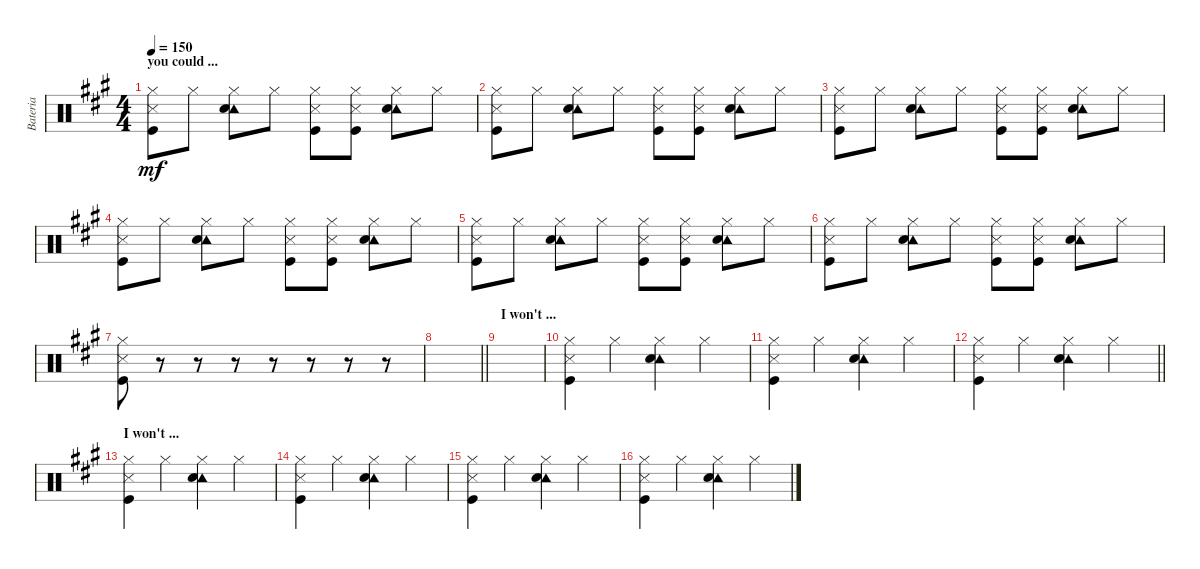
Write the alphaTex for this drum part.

\track ("Bateria" "Bateria") {instrument percussion}
\staff {score}
\articulation defaults
\ts (4 4)
\section ("" "you could ...")
\tempo 150
\clef neutral
\ks a
("Hi-Hat (closed)" "Metronome (hit)" "Kick (hit)").8{dy mf} "Hi-Hat (closed)".8 ("Tambourine (hit)" "Hi-Hat (closed)" "Electric Snare (hit)").8 "Hi-Hat (closed)".8 ("Hi-Hat (closed)" "Metronome (hit)" "Kick (hit)").8 ("Hi-Hat (closed)" "Metronome (hit)" "Kick (hit)").8 ("Tambourine (hit)" "Hi-Hat (closed)" "Electric Snare (hit)").8 "Hi-Hat (closed)".8 |
("Hi-Hat (closed)" "Metronome (hit)" "Kick (hit)").8 "Hi-Hat (closed)".8 ("Tambourine (hit)" "Hi-Hat (closed)" "Electric Snare (hit)").8 "Hi-Hat (closed)".8 ("Hi-Hat (closed)" "Metronome (hit)" "Kick (hit)").8 ("Hi-Hat (closed)" "Metronome (hit)" "Kick (hit)").8 ("Tambourine (hit)" "Hi-Hat (closed)" "Electric Snare (hit)").8 "Hi-Hat (closed)".8 |
("Hi-Hat (closed)" "Metronome (hit)" "Kick (hit)").8 "Hi-Hat (closed)".8 ("Tambourine (hit)" "Hi-Hat (closed)" "Electric Snare (hit)").8 "Hi-Hat (closed)".8 ("Hi-Hat (closed)" "Metronome (hit)" "Kick (hit)").8 ("Hi-Hat (closed)" "Metronome (hit)" "Kick (hit)").8 ("Tambourine (hit)" "Hi-Hat (closed)" "Electric Snare (hit)").8 "Hi-Hat (closed)".8 |
("Hi-Hat (closed)" "Metronome (hit)" "Kick (hit)").8 "Hi-Hat (closed)".8 ("Tambourine (hit)" "Hi-Hat (closed)" "Electric Snare (hit)").8 "Hi-Hat (closed)".8 ("Hi-Hat (closed)" "Metronome (hit)" "Kick (hit)").8 ("Hi-Hat (closed)" "Metronome (hit)" "Kick (hit)").8 ("Tambourine (hit)" "Hi-Hat (closed)" "Electric Snare (hit)").8 "Hi-Hat (closed)".8 |
("Hi-Hat (closed)" "Metronome (hit)" "Kick (hit)").8 "Hi-Hat (closed)".8 ("Tambourine (hit)" "Hi-Hat (closed)" "Electric Snare (hit)").8 "Hi-Hat (closed)".8 ("Hi-Hat (closed)" "Metronome (hit)" "Kick (hit)").8 ("Hi-Hat (closed)" "Metronome (hit)" "Kick (hit)").8 ("Tambourine (hit)" "Hi-Hat (closed)" "Electric Snare (hit)").8 "Hi-Hat (closed)".8 |
("Hi-Hat (closed)" "Metronome (hit)" "Kick (hit)").8 "Hi-Hat (closed)".8 ("Tambourine (hit)" "Hi-Hat (closed)" "Electric Snare (hit)").8 "Hi-Hat (closed)".8 ("Hi-Hat (closed)" "Metronome (hit)" "Kick (hit)").8 ("Hi-Hat (closed)" "Metronome (hit)" "Kick (hit)").8 ("Tambourine (hit)" "Hi-Hat (closed)" "Electric Snare (hit)").8 "Hi-Hat (closed)".8 |
("Hi-Hat (closed)" "Metronome (hit)" "Kick (hit)").8 r.8 r.8 r.8 r.8 r.8 r.8 r.8 |
\barLineRight lightlight
|
\section ("" "I won't ...")
|
("Hi-Hat (closed)" "Metronome (hit)" "Kick (hit)").4 "Hi-Hat (closed)".4 ("Tambourine (hit)" "Hi-Hat (closed)" "Electric Snare (hit)").4 "Hi-Hat (closed)".4 |
("Hi-Hat (closed)" "Metronome (hit)" "Kick (hit)").4 "Hi-Hat (closed)".4 ("Tambourine (hit)" "Hi-Hat (closed)" "Electric Snare (hit)").4 "Hi-Hat (closed)".4 |
\barLineRight lightlight
("Hi-Hat (closed)" "Metronome (hit)" "Kick (hit)").4 "Hi-Hat (closed)".4 ("Tambourine (hit)" "Hi-Hat (closed)" "Electric Snare (hit)").4 "Hi-Hat (closed)".4 |
\section ("" "I won't ...")
("Hi-Hat (closed)" "Metronome (hit)" "Kick (hit)").4 "Hi-Hat (closed)".4 ("Tambourine (hit)" "Hi-Hat (closed)" "Electric Snare (hit)").4 "Hi-Hat (closed)".4 |
("Hi-Hat (closed)" "Metronome (hit)" "Kick (hit)").4 "Hi-Hat (closed)".4 ("Tambourine (hit)" "Hi-Hat (closed)" "Electric Snare (hit)").4 "Hi-Hat (closed)".4 |
("Hi-Hat (closed)" "Metronome (hit)" "Kick (hit)").4 "Hi-Hat (closed)".4 ("Tambourine (hit)" "Hi-Hat (closed)" "Electric Snare (hit)").4 "Hi-Hat (closed)".4 |
("Hi-Hat (closed)" "Metronome (hit)" "Kick (hit)").4 "Hi-Hat (closed)".4 ("Tambourine (hit)" "Hi-Hat (closed)" "Electric Snare (hit)").4 "Hi-Hat (closed)".4
